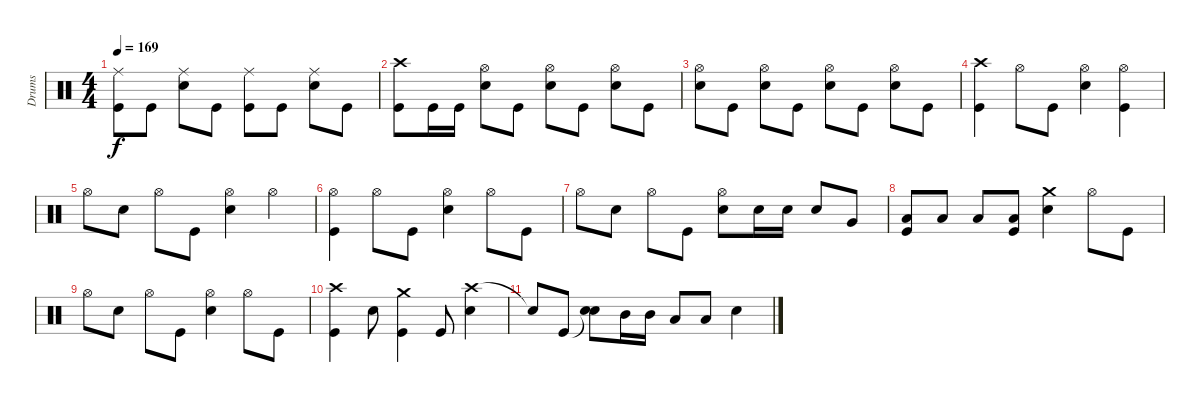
\track ("Drums" "Drums") {instrument percussion}
\staff {score}
\articulation defaults
\ts (4 4)
\tempo 169
\clef neutral
\ks c
("Ride (middle)" "Kick (hit)").8{dy f} "Kick (hit)".8 ("Ride (middle)" "Snare (hit) 2").8 "Kick (hit)".8 ("Ride (middle)" "Kick (hit)").8 "Kick (hit)".8 ("Ride (middle)" "Snare (hit) 2").8 "Kick (hit)".8 |
("Crash high (hit)" "Kick (hit)").8 "Kick (hit)".16 "Kick (hit)".16 ("Hi-Hat (open)" "Snare (hit) 2").8 "Kick (hit)".8 ("Hi-Hat (open)" "Snare (hit) 2").8 "Kick (hit)".8 ("Hi-Hat (open)" "Snare (hit) 2").8 "Kick (hit)".8 |
("Hi-Hat (open)" "Snare (hit) 2").8 "Kick (hit)".8 ("Hi-Hat (open)" "Snare (hit) 2").8 "Kick (hit)".8 ("Hi-Hat (open)" "Snare (hit) 2").8 "Kick (hit)".8 ("Hi-Hat (open)" "Snare (hit) 2").8 "Kick (hit)".8 |
("Crash high (hit)" "Kick (hit)").4 "Hi-Hat (open)".8 "Kick (hit)".8 ("Hi-Hat (open)" "Snare (hit) 2").4 ("Hi-Hat (open)" "Kick (hit)").4 |
"Hi-Hat (open)".8 "Snare (hit) 2".8 "Hi-Hat (open)".8 "Kick (hit)".8 ("Hi-Hat (open)" "Snare (hit) 2").4 "Hi-Hat (open)".4 |
("Hi-Hat (open)" "Kick (hit)").4 "Hi-Hat (open)".8 "Kick (hit)".8 ("Hi-Hat (open)" "Snare (hit) 2").4 "Hi-Hat (open)".8 "Kick (hit)".8 |
"Hi-Hat (open)".8 "Snare (hit) 2".8 "Hi-Hat (open)".8 "Kick (hit)".8 ("Hi-Hat (open)" "Snare (hit) 2").8 "Snare (hit) 2".16 "Snare (hit) 2".16 "Snare (hit) 2".8 "Very Low Tom (hit)".8 |
("Low Floor Tom (hit)" "Kick (hit)").8 "Low Floor Tom (hit)".8 "Low Floor Tom (hit)".8 ("Low Floor Tom (hit)" "Kick (hit)").8 ("Crash medium (hit)" "Snare (hit) 2").4 "Hi-Hat (open)".8 "Kick (hit)".8 |
"Hi-Hat (open)".8 "Snare (hit) 2".8 "Hi-Hat (open)".8 "Kick (hit)".8 ("Hi-Hat (open)" "Snare (hit) 2").4 "Hi-Hat (open)".8 "Kick (hit)".8 |
("Crash high (hit)" "Kick (hit)").4 "Snare (hit) 2".8 ("Crash medium (hit)" "Kick (hit)").4 "Kick (hit)".8 ("Crash high (hit)" "Snare (hit) 2").4 |
"Snare (hit)"{t}.8 "Kick (hit)".8 ("Snare (hit)"{t} "Snare (hit) 2").8 "Mid Tom (hit)".16 "Mid Tom (hit)".16 "Low Tom (hit)".8 "Low Tom (hit)".8 "Snare (hit) 2".4
